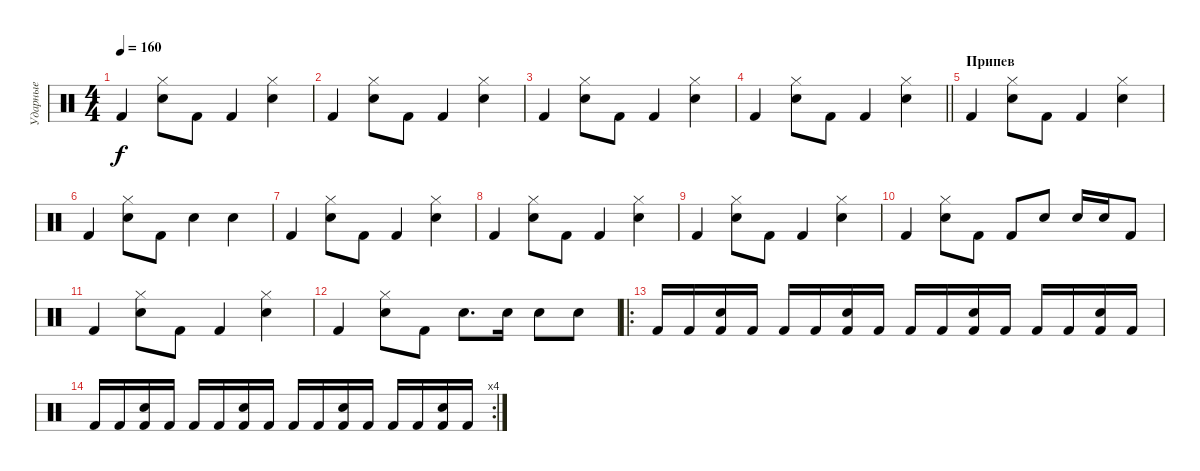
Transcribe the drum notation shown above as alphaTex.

\track ("Ударные" "Ударные") {instrument percussion}
\staff {score}
\articulation defaults
\ts (4 4)
\tempo 160
\clef neutral
\ks c "Kick (hit) 2".4{dy f}
("Hi-Hat (closed)" "Snare (hit) 2").8 "Kick (hit) 2".8 "Kick (hit) 2".4 ("Hi-Hat (closed)" "Snare (hit) 2").4 |
"Kick (hit) 2".4 ("Hi-Hat (closed)" "Snare (hit) 2").8 "Kick (hit) 2".8 "Kick (hit) 2".4 ("Hi-Hat (closed)" "Snare (hit) 2").4 |
"Kick (hit) 2".4 ("Hi-Hat (closed)" "Snare (hit) 2").8 "Kick (hit) 2".8 "Kick (hit) 2".4 ("Hi-Hat (closed)" "Snare (hit) 2").4 |
\barLineRight lightlight "Kick (hit) 2".4
("Hi-Hat (closed)" "Snare (hit) 2").8 "Kick (hit) 2".8 "Kick (hit) 2".4 ("Hi-Hat (closed)" "Snare (hit) 2").4 |
\section ("" "Припев")
"Kick (hit) 2".4 ("Hi-Hat (closed)" "Snare (hit) 2").8 "Kick (hit) 2".8 "Kick (hit) 2".4 ("Hi-Hat (closed)" "Snare (hit) 2").4 |
"Kick (hit) 2".4 ("Hi-Hat (closed)" "Snare (hit) 2").8 "Kick (hit) 2".8 "Snare (hit) 2".4 "Snare (hit) 2".4 |
"Kick (hit) 2".4 ("Hi-Hat (closed)" "Snare (hit) 2").8 "Kick (hit) 2".8 "Kick (hit) 2".4 ("Hi-Hat (closed)" "Snare (hit) 2").4 |
"Kick (hit) 2".4 ("Hi-Hat (closed)" "Snare (hit) 2").8 "Kick (hit) 2".8 "Kick (hit) 2".4 ("Hi-Hat (closed)" "Snare (hit) 2").4 |
"Kick (hit) 2".4 ("Hi-Hat (closed)" "Snare (hit) 2").8 "Kick (hit) 2".8 "Kick (hit) 2".4 ("Hi-Hat (closed)" "Snare (hit) 2").4 |
"Kick (hit) 2".4 ("Hi-Hat (closed)" "Snare (hit) 2").8 "Kick (hit) 2".8 "Kick (hit) 2".8 "Snare (hit) 2".8 "Snare (hit) 2".16 "Snare (hit) 2".16 "Kick (hit) 2".8 |
"Kick (hit) 2".4 ("Hi-Hat (closed)" "Snare (hit) 2").8 "Kick (hit) 2".8 "Kick (hit) 2".4 ("Hi-Hat (closed)" "Snare (hit) 2").4 |
"Kick (hit) 2".4 ("Hi-Hat (closed)" "Snare (hit) 2").8 "Kick (hit) 2".8 "Snare (hit) 2".8{d} "Snare (hit) 2".16 "Snare (hit) 2".8 "Snare (hit) 2".8 |
\ro "Kick (hit) 2".16 "Kick (hit) 2".16
("Snare (hit) 2" "Kick (hit) 2").16 "Kick (hit) 2".16 "Kick (hit) 2".16 "Kick (hit) 2".16 ("Snare (hit) 2" "Kick (hit) 2").16 "Kick (hit) 2".16 "Kick (hit) 2".16 "Kick (hit) 2".16 ("Snare (hit) 2" "Kick (hit) 2").16 "Kick (hit) 2".16 "Kick (hit) 2".16 "Kick (hit) 2".16 ("Snare (hit) 2" "Kick (hit) 2").16 "Kick (hit) 2".16 |
\rc 4 "Kick (hit) 2".16 "Kick (hit) 2".16
("Snare (hit) 2" "Kick (hit) 2").16 "Kick (hit) 2".16 "Kick (hit) 2".16 "Kick (hit) 2".16 ("Snare (hit) 2" "Kick (hit) 2").16 "Kick (hit) 2".16 "Kick (hit) 2".16 "Kick (hit) 2".16 ("Snare (hit) 2" "Kick (hit) 2").16 "Kick (hit) 2".16 "Kick (hit) 2".16 "Kick (hit) 2".16 ("Snare (hit) 2" "Kick (hit) 2").16 "Kick (hit) 2".16
